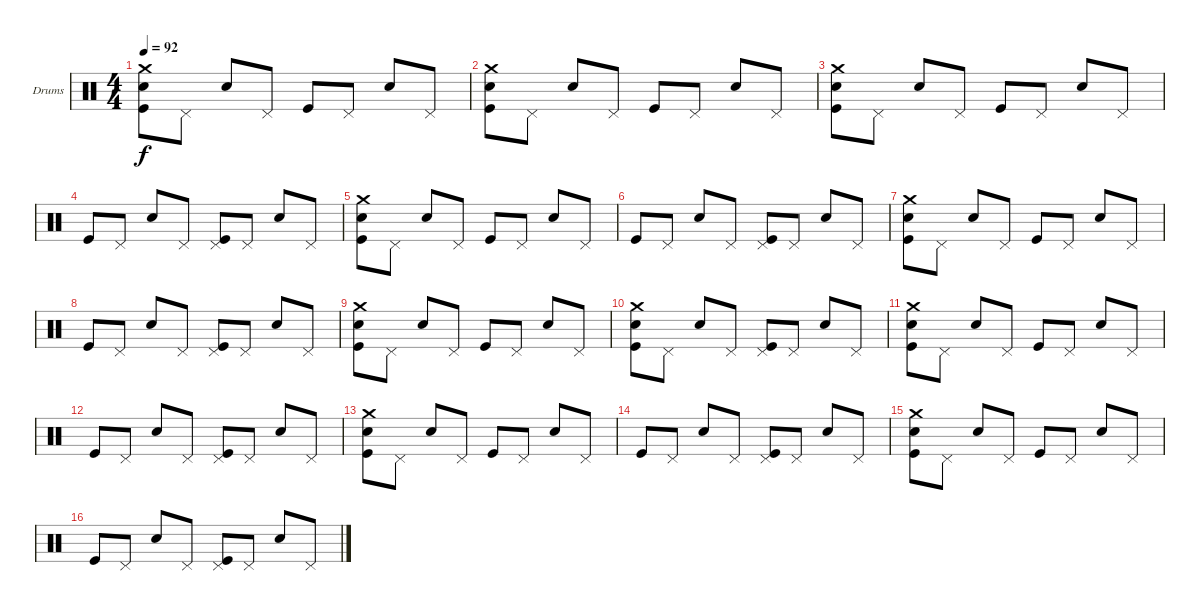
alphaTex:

\defaultSystemsLayout 4
\bracketExtendMode groupsimilarinstruments
\firstSystemTrackNameOrientation horizontal
\otherSystemsTrackNameOrientation horizontal
\track ("Е. Кулаков" "Drums") {instrument percussion}
\staff {score}
\articulation defaults
\ts (4 4)
\tempo 92
\clef neutral
\ks c
("Kick (hit)" "Snare (hit) 2" "Crash medium (hit)").8{dy f} "Pedal Hi-Hat (hit)".8 "Snare (hit) 2".8 "Pedal Hi-Hat (hit)".8 "Kick (hit)".8 "Pedal Hi-Hat (hit)".8 "Snare (hit) 2".8 "Pedal Hi-Hat (hit)".8 |
("Kick (hit)" "Snare (hit) 2" "Crash medium (hit)").8 "Pedal Hi-Hat (hit)".8 "Snare (hit) 2".8 "Pedal Hi-Hat (hit)".8 "Kick (hit)".8 "Pedal Hi-Hat (hit)".8 "Snare (hit) 2".8 "Pedal Hi-Hat (hit)".8 |
("Kick (hit)" "Snare (hit) 2" "Crash medium (hit)").8 "Pedal Hi-Hat (hit)".8 "Snare (hit) 2".8 "Pedal Hi-Hat (hit)".8 "Kick (hit)".8 "Pedal Hi-Hat (hit)".8 "Snare (hit) 2".8 "Pedal Hi-Hat (hit)".8 |
"Kick (hit)".8 "Pedal Hi-Hat (hit)".8 "Snare (hit) 2".8 "Pedal Hi-Hat (hit)".8 ("Pedal Hi-Hat (hit)" "Kick (hit)").8 "Pedal Hi-Hat (hit)".8 "Snare (hit) 2".8 "Pedal Hi-Hat (hit)".8 |
("Kick (hit)" "Snare (hit) 2" "Crash medium (hit)").8 "Pedal Hi-Hat (hit)".8 "Snare (hit) 2".8 "Pedal Hi-Hat (hit)".8 "Kick (hit)".8 "Pedal Hi-Hat (hit)".8 "Snare (hit) 2".8 "Pedal Hi-Hat (hit)".8 |
"Kick (hit)".8 "Pedal Hi-Hat (hit)".8 "Snare (hit) 2".8 "Pedal Hi-Hat (hit)".8 ("Pedal Hi-Hat (hit)" "Kick (hit)").8 "Pedal Hi-Hat (hit)".8 "Snare (hit) 2".8 "Pedal Hi-Hat (hit)".8 |
("Kick (hit)" "Snare (hit) 2" "Crash medium (hit)").8 "Pedal Hi-Hat (hit)".8 "Snare (hit) 2".8 "Pedal Hi-Hat (hit)".8 "Kick (hit)".8 "Pedal Hi-Hat (hit)".8 "Snare (hit) 2".8 "Pedal Hi-Hat (hit)".8 |
"Kick (hit)".8 "Pedal Hi-Hat (hit)".8 "Snare (hit) 2".8 "Pedal Hi-Hat (hit)".8 ("Pedal Hi-Hat (hit)" "Kick (hit)").8 "Pedal Hi-Hat (hit)".8 "Snare (hit) 2".8 "Pedal Hi-Hat (hit)".8 |
("Kick (hit)" "Snare (hit) 2" "Crash medium (hit)").8 "Pedal Hi-Hat (hit)".8 "Snare (hit) 2".8 "Pedal Hi-Hat (hit)".8 "Kick (hit)".8 "Pedal Hi-Hat (hit)".8 "Snare (hit) 2".8 "Pedal Hi-Hat (hit)".8 |
("Kick (hit)" "Snare (hit) 2" "Crash medium (hit)").8 "Pedal Hi-Hat (hit)".8 "Snare (hit) 2".8 "Pedal Hi-Hat (hit)".8 ("Pedal Hi-Hat (hit)" "Kick (hit)").8 "Pedal Hi-Hat (hit)".8 "Snare (hit) 2".8 "Pedal Hi-Hat (hit)".8 |
("Kick (hit)" "Snare (hit) 2" "Crash medium (hit)").8 "Pedal Hi-Hat (hit)".8 "Snare (hit) 2".8 "Pedal Hi-Hat (hit)".8 "Kick (hit)".8 "Pedal Hi-Hat (hit)".8 "Snare (hit) 2".8 "Pedal Hi-Hat (hit)".8 |
"Kick (hit)".8 "Pedal Hi-Hat (hit)".8 "Snare (hit) 2".8 "Pedal Hi-Hat (hit)".8 ("Pedal Hi-Hat (hit)" "Kick (hit)").8 "Pedal Hi-Hat (hit)".8 "Snare (hit) 2".8 "Pedal Hi-Hat (hit)".8 |
("Kick (hit)" "Snare (hit) 2" "Crash medium (hit)").8 "Pedal Hi-Hat (hit)".8 "Snare (hit) 2".8 "Pedal Hi-Hat (hit)".8 "Kick (hit)".8 "Pedal Hi-Hat (hit)".8 "Snare (hit) 2".8 "Pedal Hi-Hat (hit)".8 |
"Kick (hit)".8 "Pedal Hi-Hat (hit)".8 "Snare (hit) 2".8 "Pedal Hi-Hat (hit)".8 ("Pedal Hi-Hat (hit)" "Kick (hit)").8 "Pedal Hi-Hat (hit)".8 "Snare (hit) 2".8 "Pedal Hi-Hat (hit)".8 |
("Kick (hit)" "Snare (hit) 2" "Crash medium (hit)").8 "Pedal Hi-Hat (hit)".8 "Snare (hit) 2".8 "Pedal Hi-Hat (hit)".8 "Kick (hit)".8 "Pedal Hi-Hat (hit)".8 "Snare (hit) 2".8 "Pedal Hi-Hat (hit)".8 |
"Kick (hit)".8 "Pedal Hi-Hat (hit)".8 "Snare (hit) 2".8 "Pedal Hi-Hat (hit)".8 ("Pedal Hi-Hat (hit)" "Kick (hit)").8 "Pedal Hi-Hat (hit)".8 "Snare (hit) 2".8 "Pedal Hi-Hat (hit)".8
